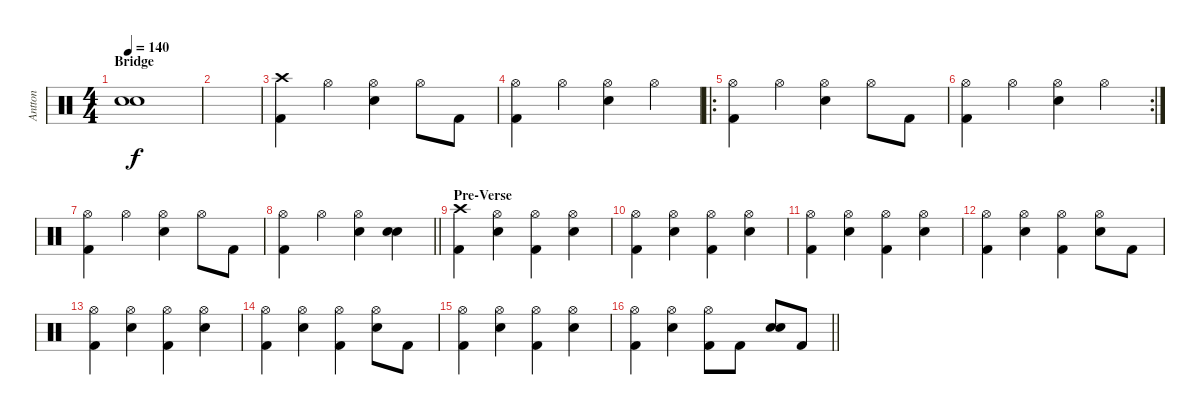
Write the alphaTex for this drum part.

\track ("Antton" "Antton") {instrument percussion}
\staff {score}
\articulation defaults
\ts (4 4)
\section ("" "Bridge")
\tempo 140
\clef neutral
\ks c
("Snare (hit) 2" "Snare (hit) 2").1{dy f} |
|
("Crash high (hit)" "Kick (hit) 2").4 "Hi-Hat (open)".4 ("Hi-Hat (open)" "Snare (hit) 2").4 "Hi-Hat (open)".8 "Kick (hit) 2".8 |
("Hi-Hat (open)" "Kick (hit) 2").4 "Hi-Hat (open)".4 ("Hi-Hat (open)" "Snare (hit) 2").4 "Hi-Hat (open)".4 |
\ro
("Hi-Hat (open)" "Kick (hit) 2").4 "Hi-Hat (open)".4 ("Hi-Hat (open)" "Snare (hit) 2").4 "Hi-Hat (open)".8 "Kick (hit) 2".8 |
\rc 2
("Hi-Hat (open)" "Kick (hit) 2").4 "Hi-Hat (open)".4 ("Hi-Hat (open)" "Snare (hit) 2").4 "Hi-Hat (open)".4 |
("Hi-Hat (open)" "Kick (hit) 2").4 "Hi-Hat (open)".4 ("Hi-Hat (open)" "Snare (hit) 2").4 "Hi-Hat (open)".8 "Kick (hit) 2".8 |
\barLineRight lightlight
("Hi-Hat (open)" "Kick (hit) 2").4 "Hi-Hat (open)".4 ("Hi-Hat (open)" "Snare (hit) 2").4 ("Snare (hit) 2" "Snare (hit) 2").4 |
\section ("" "Pre-Verse")
("Crash high (hit)" "Kick (hit) 2").4 ("Hi-Hat (open)" "Snare (hit) 2").4 ("Hi-Hat (open)" "Kick (hit) 2").4 ("Hi-Hat (open)" "Snare (hit) 2").4 |
("Hi-Hat (open)" "Kick (hit) 2").4 ("Hi-Hat (open)" "Snare (hit) 2").4 ("Hi-Hat (open)" "Kick (hit) 2").4 ("Hi-Hat (open)" "Snare (hit) 2").4 |
("Hi-Hat (open)" "Kick (hit) 2").4 ("Hi-Hat (open)" "Snare (hit) 2").4 ("Hi-Hat (open)" "Kick (hit) 2").4 ("Hi-Hat (open)" "Snare (hit) 2").4 |
("Hi-Hat (open)" "Kick (hit) 2").4 ("Hi-Hat (open)" "Snare (hit) 2").4 ("Hi-Hat (open)" "Kick (hit) 2").4 ("Hi-Hat (open)" "Snare (hit) 2").8 "Kick (hit) 2".8 |
("Hi-Hat (open)" "Kick (hit) 2").4 ("Hi-Hat (open)" "Snare (hit) 2").4 ("Hi-Hat (open)" "Kick (hit) 2").4 ("Hi-Hat (open)" "Snare (hit) 2").4 |
("Hi-Hat (open)" "Kick (hit) 2").4 ("Hi-Hat (open)" "Snare (hit) 2").4 ("Hi-Hat (open)" "Kick (hit) 2").4 ("Hi-Hat (open)" "Snare (hit) 2").8 "Kick (hit) 2".8 |
("Hi-Hat (open)" "Kick (hit) 2").4 ("Hi-Hat (open)" "Snare (hit) 2").4 ("Hi-Hat (open)" "Kick (hit) 2").4 ("Hi-Hat (open)" "Snare (hit) 2").4 |
\barLineRight lightlight
("Hi-Hat (open)" "Kick (hit) 2").4 ("Hi-Hat (open)" "Snare (hit) 2").4 ("Hi-Hat (open)" "Kick (hit) 2").8 "Kick (hit) 2".8 ("Snare (hit) 2" "Snare (hit) 2").8 "Kick (hit) 2".8
